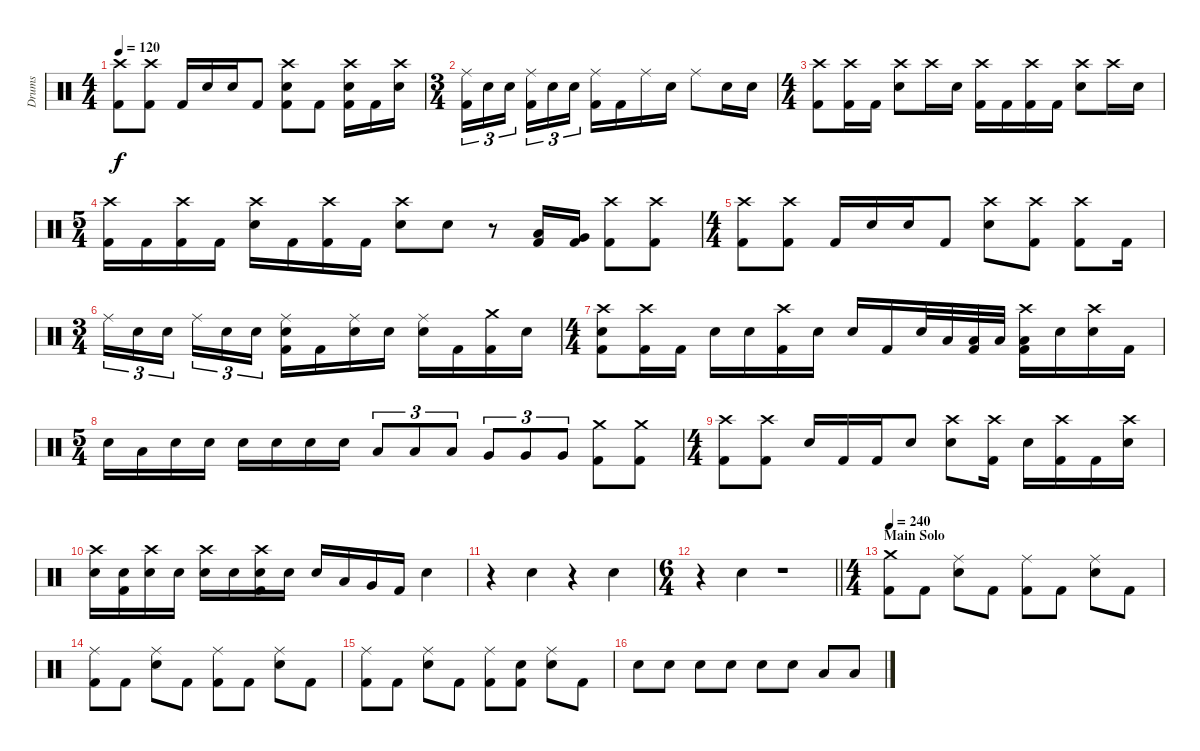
\track ("Drums" "Drums") {instrument percussion}
\staff {score}
\articulation defaults
\ts (4 4)
\tempo 120
\clef neutral
\ks c
("Crash high (hit)" "Kick (hit) 2").8{dy f} ("Crash high (hit)" "Kick (hit) 2").8 "Kick (hit) 2".16 "Snare (hit) 2".16 "Snare (hit) 2".16 "Kick (hit) 2".8 ("Crash high (hit)" "Snare (hit) 2" "Kick (hit) 2").8 "Kick (hit) 2".8 ("Crash high (hit)" "Snare (hit) 2" "Kick (hit) 2").16 "Kick (hit) 2".16 ("Crash high (hit)" "Snare (hit) 2").16 |
\ts (3 4)
("Ride (middle)" "Kick (hit) 2").16{tu (3 2)} "Snare (hit) 2".16{tu (3 2)} "Snare (hit) 2".16{tu (3 2) beam splitsecondary} ("Ride (middle)" "Kick (hit) 2").16{tu (3 2)} "Snare (hit) 2".16{tu (3 2)} "Snare (hit) 2".16{tu (3 2)} ("Ride (middle)" "Kick (hit) 2").16 "Kick (hit) 2".16 "Ride (middle)".16 "Snare (hit) 2".16 "Ride (middle)".8 "Snare (hit) 2".16 "Snare (hit) 2".16 |
\ts (4 4)
("Crash high (hit)" "Kick (hit) 2").8 ("Crash high (hit)" "Kick (hit) 2").16 "Kick (hit) 2".16 ("Crash high (hit)" "Snare (hit) 2").8 "Crash high (hit)".16 "Snare (hit) 2".16 ("Crash high (hit)" "Kick (hit) 2").16 "Kick (hit) 2".16 ("Crash high (hit)" "Kick (hit) 2").16 "Kick (hit) 2".16 ("Crash high (hit)" "Snare (hit) 2").8 "Crash high (hit)".16 "Snare (hit) 2".16 |
\ts (5 4)
("Crash high (hit)" "Kick (hit) 2").16 "Kick (hit) 2".16 ("Crash high (hit)" "Kick (hit) 2").16 "Kick (hit) 2".16 ("Crash high (hit)" "Snare (hit) 2").16 "Kick (hit) 2".16 ("Crash high (hit)" "Kick (hit) 2").16 "Kick (hit) 2".16 ("Crash high (hit)" "Snare (hit) 2").8 "Snare (hit) 2".8 r.8 ("Low Tom (hit)" "Kick (hit) 2").16 ("Very Low Tom (hit)" "Kick (hit) 2").16 ("Crash high (hit)" "Kick (hit) 2").8 ("Crash high (hit)" "Kick (hit) 2").8 |
\ts (4 4)
("Crash high (hit)" "Kick (hit) 2").8 ("Crash high (hit)" "Kick (hit) 2").8 "Kick (hit) 2".16 "Snare (hit) 2".16 "Snare (hit) 2".16 "Kick (hit) 2".8 ("Crash high (hit)" "Snare (hit) 2").8 ("Crash high (hit)" "Kick (hit) 2").8 ("Crash high (hit)" "Kick (hit) 2").8 "Kick (hit) 2".16 |
\ts (3 4)
"Ride (middle)".16{tu (3 2)} "Snare (hit) 2".16{tu (3 2)} "Snare (hit) 2".16{tu (3 2) beam splitsecondary} "Ride (middle)".16{tu (3 2)} "Snare (hit) 2".16{tu (3 2)} "Snare (hit) 2".16{tu (3 2)} ("Ride (middle)" "Snare (hit) 2" "Kick (hit) 2").16 "Kick (hit) 2".16 ("Ride (middle)" "Snare (hit) 2").16 "Snare (hit) 2".16 ("Ride (middle)" "Snare (hit) 2").16 "Kick (hit) 2".16 ("Crash medium (hit)" "Kick (hit) 2").16 "Snare (hit) 2".16 |
\ts (4 4)
("Crash high (hit)" "Snare (hit) 2" "Kick (hit) 2").8 ("Crash high (hit)" "Kick (hit) 2").16 "Kick (hit) 2".16 "Snare (hit) 2".16 "Snare (hit) 2".16 ("Crash high (hit)" "Kick (hit) 2").16 "Snare (hit) 2".16 "Snare (hit) 2".16 "Kick (hit) 2".16 "Snare (hit) 2".32 "Low Tom (hit)".32 ("Low Tom (hit)" "Kick (hit) 2").32 "Low Tom (hit)".32 ("Crash high (hit)" "Low Tom (hit)" "Kick (hit) 2").16 "Snare (hit) 2".16 ("Crash high (hit)" "Snare (hit) 2").16 "Kick (hit) 2".16 |
\ts (5 4)
"Snare (hit) 2".16 "Low Tom (hit)".16 "Snare (hit) 2".16 "Snare (hit) 2".16 "Snare (hit) 2".16 "Snare (hit) 2".16 "Snare (hit) 2".16 "Snare (hit) 2".16 "Low Tom (hit)".8{tu (3 2)} "Low Tom (hit)".8{tu (3 2)} "Low Tom (hit)".8{tu (3 2)} "Very Low Tom (hit)".8{tu (3 2)} "Very Low Tom (hit)".8{tu (3 2)} "Very Low Tom (hit)".8{tu (3 2)} ("Crash medium (hit)" "Kick (hit) 2").8 ("Crash medium (hit)" "Kick (hit) 2").8 |
\ts (4 4)
("Crash high (hit)" "Kick (hit) 2").8 ("Crash high (hit)" "Kick (hit) 2").8 "Snare (hit) 2".16 "Kick (hit) 2".16 "Kick (hit) 2".16 "Snare (hit) 2".8 ("Crash high (hit)" "Snare (hit) 2").8 ("Crash high (hit)" "Kick (hit) 2").16 "Snare (hit) 2".16 ("Crash high (hit)" "Kick (hit) 2").16 "Kick (hit) 2".16 ("Crash high (hit)" "Snare (hit) 2").16 |
("Crash high (hit)" "Snare (hit) 2").16 ("Snare (hit) 2" "Kick (hit) 2").16 ("Crash high (hit)" "Snare (hit) 2").16 "Snare (hit) 2".16 ("Crash high (hit)" "Snare (hit) 2").16 "Snare (hit) 2".16 ("Crash high (hit)" "Snare (hit) 2" "Kick (hit) 2").16 "Snare (hit) 2".16 "Snare (hit) 2".16 "Low Tom (hit)".16 "Very Low Tom (hit)".16 "Kick (hit) 2".16 "Snare (hit) 2".4 |
r.4 "Snare (hit) 2".4 r.4 "Snare (hit) 2".4 |
\ts (6 4)
\barLineRight lightlight
r.4 "Snare (hit) 2".4 r.1 |
\ts (4 4)
\section ("" "Main Solo")
\tempo 240
("Crash medium (hit)" "Kick (hit) 2").8 "Kick (hit) 2".8 ("Ride (middle)" "Snare (hit) 2").8 "Kick (hit) 2".8 ("Ride (middle)" "Kick (hit) 2").8 "Kick (hit) 2".8 ("Ride (middle)" "Snare (hit) 2").8 "Kick (hit) 2".8 |
("Ride (middle)" "Kick (hit) 2").8 "Kick (hit) 2".8 ("Ride (middle)" "Snare (hit) 2").8 "Kick (hit) 2".8 ("Ride (middle)" "Kick (hit) 2").8 "Kick (hit) 2".8 ("Ride (middle)" "Snare (hit) 2").8 "Kick (hit) 2".8 |
("Ride (middle)" "Kick (hit) 2").8 "Kick (hit) 2".8 ("Ride (middle)" "Snare (hit) 2").8 "Kick (hit) 2".8 ("Ride (middle)" "Kick (hit) 2").8 ("Snare (hit) 2" "Kick (hit) 2").8 ("Ride (middle)" "Snare (hit) 2").8 "Kick (hit) 2".8 |
"Snare (hit) 2".8 "Snare (hit) 2".8 "Snare (hit) 2".8 "Snare (hit) 2".8 "Snare (hit) 2".8 "Snare (hit) 2".8 "Low Tom (hit)".8 "Low Tom (hit)".8
